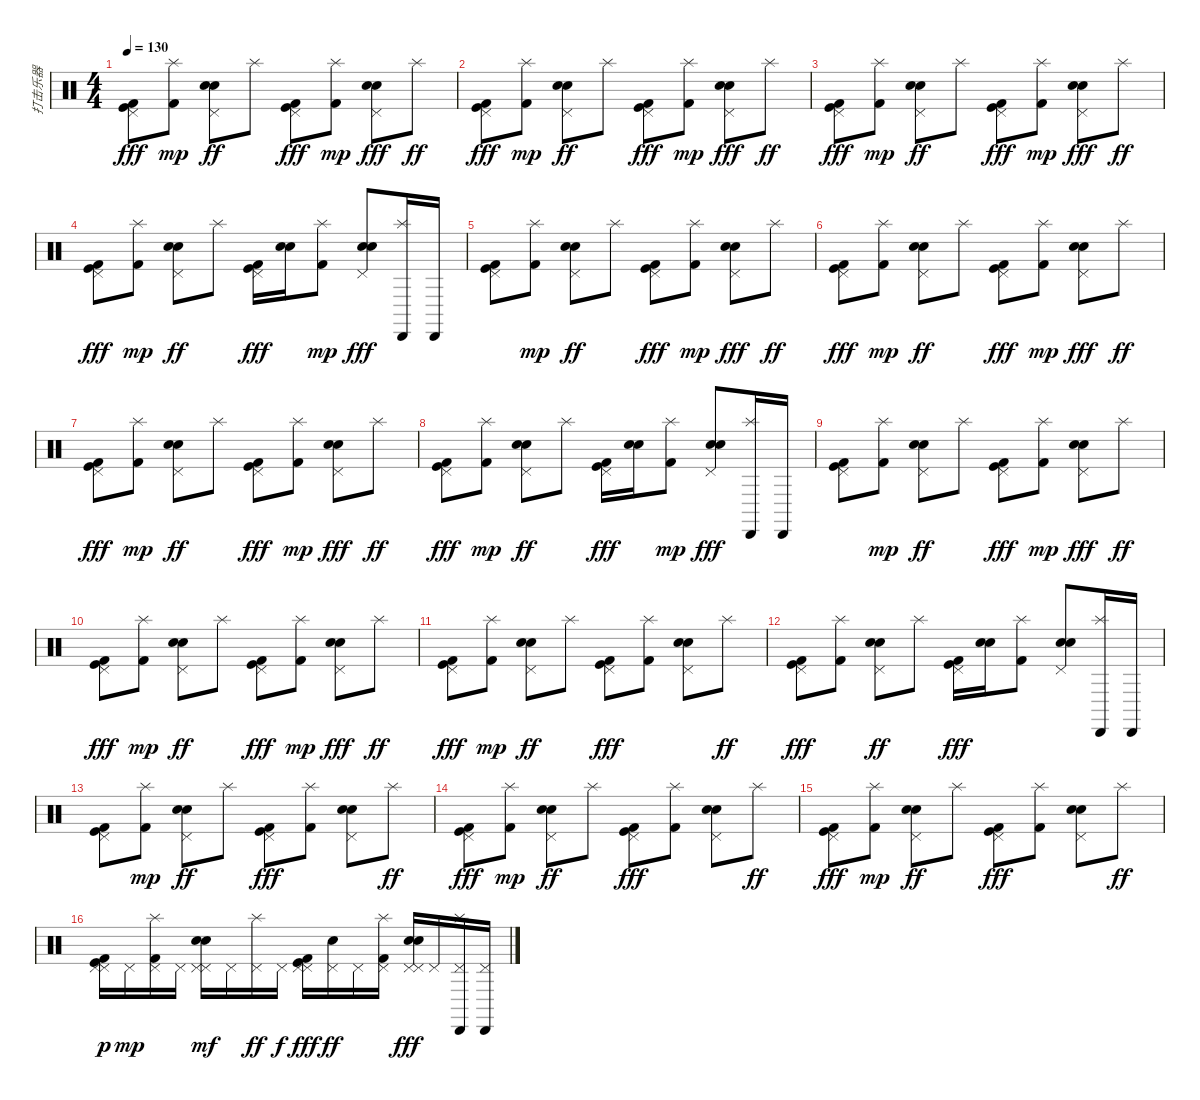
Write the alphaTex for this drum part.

\track ("打击乐器" "打击乐器") {instrument percussion}
\staff {score}
\articulation defaults
\ts (4 4)
\tempo 130
\clef neutral
\ks c
("Pedal Hi-Hat (hit)" "Kick (hit)" "Kick (hit) 2").8{dy fff} ("Splash (hit)" "Kick (hit) 2").8{dy mp} ("Pedal Hi-Hat (hit)" "Electric Snare (hit)" "Snare (hit) 2").8{dy ff} "Splash (hit)".8 ("Pedal Hi-Hat (hit)" "Kick (hit)" "Kick (hit) 2").8{dy fff} ("Splash (hit)" "Kick (hit) 2").8{dy mp} ("Pedal Hi-Hat (hit)" "Electric Snare (hit)" "Snare (hit) 2").8{dy fff} "Splash (hit)".8{dy ff} |
("Pedal Hi-Hat (hit)" "Kick (hit)" "Kick (hit) 2").8{dy fff} ("Splash (hit)" "Kick (hit) 2").8{dy mp} ("Pedal Hi-Hat (hit)" "Electric Snare (hit)" "Snare (hit) 2").8{dy ff} "Splash (hit)".8 ("Pedal Hi-Hat (hit)" "Kick (hit)" "Kick (hit) 2").8{dy fff} ("Splash (hit)" "Kick (hit) 2").8{dy mp} ("Pedal Hi-Hat (hit)" "Electric Snare (hit)" "Snare (hit) 2").8{dy fff} "Splash (hit)".8{dy ff} |
("Pedal Hi-Hat (hit)" "Kick (hit)" "Kick (hit) 2").8{dy fff} ("Splash (hit)" "Kick (hit) 2").8{dy mp} ("Pedal Hi-Hat (hit)" "Electric Snare (hit)" "Snare (hit) 2").8{dy ff} "Splash (hit)".8 ("Pedal Hi-Hat (hit)" "Kick (hit)" "Kick (hit) 2").8{dy fff} ("Splash (hit)" "Kick (hit) 2").8{dy mp} ("Pedal Hi-Hat (hit)" "Electric Snare (hit)" "Snare (hit) 2").8{dy fff} "Splash (hit)".8{dy ff} |
("Pedal Hi-Hat (hit)" "Kick (hit)" "Kick (hit) 2").8{dy fff} ("Splash (hit)" "Kick (hit) 2").8{dy mp} ("Pedal Hi-Hat (hit)" "Electric Snare (hit)" "Snare (hit) 2").8{dy ff} "Splash (hit)".8 ("Pedal Hi-Hat (hit)" "Kick (hit)" "Kick (hit) 2").16{dy fff} ("Electric Snare (hit)" "Snare (hit) 2").16 ("Splash (hit)" "Kick (hit) 2").8{dy mp} ("Pedal Hi-Hat (hit)" "Electric Snare (hit)" "Snare (hit) 2").8{dy fff} ("Splash (hit)" "Cabasa (hit)").16 "Cabasa (hit)".16 |
("Pedal Hi-Hat (hit)" "Kick (hit)" "Kick (hit) 2").8 ("Splash (hit)" "Kick (hit) 2").8{dy mp} ("Pedal Hi-Hat (hit)" "Electric Snare (hit)" "Snare (hit) 2").8{dy ff} "Splash (hit)".8 ("Pedal Hi-Hat (hit)" "Kick (hit)" "Kick (hit) 2").8{dy fff} ("Splash (hit)" "Kick (hit) 2").8{dy mp} ("Pedal Hi-Hat (hit)" "Electric Snare (hit)" "Snare (hit) 2").8{dy fff} "Splash (hit)".8{dy ff} |
("Pedal Hi-Hat (hit)" "Kick (hit)" "Kick (hit) 2").8{dy fff} ("Splash (hit)" "Kick (hit) 2").8{dy mp} ("Pedal Hi-Hat (hit)" "Electric Snare (hit)" "Snare (hit) 2").8{dy ff} "Splash (hit)".8 ("Pedal Hi-Hat (hit)" "Kick (hit)" "Kick (hit) 2").8{dy fff} ("Splash (hit)" "Kick (hit) 2").8{dy mp} ("Pedal Hi-Hat (hit)" "Electric Snare (hit)" "Snare (hit) 2").8{dy fff} "Splash (hit)".8{dy ff} |
("Pedal Hi-Hat (hit)" "Kick (hit)" "Kick (hit) 2").8{dy fff} ("Splash (hit)" "Kick (hit) 2").8{dy mp} ("Pedal Hi-Hat (hit)" "Electric Snare (hit)" "Snare (hit) 2").8{dy ff} "Splash (hit)".8 ("Pedal Hi-Hat (hit)" "Kick (hit)" "Kick (hit) 2").8{dy fff} ("Splash (hit)" "Kick (hit) 2").8{dy mp} ("Pedal Hi-Hat (hit)" "Electric Snare (hit)" "Snare (hit) 2").8{dy fff} "Splash (hit)".8{dy ff} |
("Pedal Hi-Hat (hit)" "Kick (hit)" "Kick (hit) 2").8{dy fff} ("Splash (hit)" "Kick (hit) 2").8{dy mp} ("Pedal Hi-Hat (hit)" "Electric Snare (hit)" "Snare (hit) 2").8{dy ff} "Splash (hit)".8 ("Pedal Hi-Hat (hit)" "Kick (hit)" "Kick (hit) 2").16{dy fff} ("Electric Snare (hit)" "Snare (hit) 2").16 ("Splash (hit)" "Kick (hit) 2").8{dy mp} ("Pedal Hi-Hat (hit)" "Electric Snare (hit)" "Snare (hit) 2").8{dy fff} ("Splash (hit)" "Cabasa (hit)").16 "Cabasa (hit)".16 |
("Pedal Hi-Hat (hit)" "Kick (hit)" "Kick (hit) 2").8 ("Splash (hit)" "Kick (hit) 2").8{dy mp} ("Pedal Hi-Hat (hit)" "Electric Snare (hit)" "Snare (hit) 2").8{dy ff} "Splash (hit)".8 ("Pedal Hi-Hat (hit)" "Kick (hit)" "Kick (hit) 2").8{dy fff} ("Splash (hit)" "Kick (hit) 2").8{dy mp} ("Pedal Hi-Hat (hit)" "Electric Snare (hit)" "Snare (hit) 2").8{dy fff} "Splash (hit)".8{dy ff} |
("Pedal Hi-Hat (hit)" "Kick (hit)" "Kick (hit) 2").8{dy fff} ("Splash (hit)" "Kick (hit) 2").8{dy mp} ("Pedal Hi-Hat (hit)" "Electric Snare (hit)" "Snare (hit) 2").8{dy ff} "Splash (hit)".8 ("Pedal Hi-Hat (hit)" "Kick (hit)" "Kick (hit) 2").8{dy fff} ("Splash (hit)" "Kick (hit) 2").8{dy mp} ("Pedal Hi-Hat (hit)" "Electric Snare (hit)" "Snare (hit) 2").8{dy fff} "Splash (hit)".8{dy ff} |
("Pedal Hi-Hat (hit)" "Kick (hit)" "Kick (hit) 2").8{dy fff} ("Splash (hit)" "Kick (hit) 2").8{dy mp} ("Pedal Hi-Hat (hit)" "Electric Snare (hit)" "Snare (hit) 2").8{dy ff} "Splash (hit)".8 ("Pedal Hi-Hat (hit)" "Kick (hit)" "Kick (hit) 2").8{dy fff} ("Splash (hit)" "Kick (hit) 2").8 ("Pedal Hi-Hat (hit)" "Electric Snare (hit)" "Snare (hit) 2").8 "Splash (hit)".8{dy ff} |
("Pedal Hi-Hat (hit)" "Kick (hit)" "Kick (hit) 2").8{dy fff} ("Splash (hit)" "Kick (hit) 2").8 ("Pedal Hi-Hat (hit)" "Electric Snare (hit)" "Snare (hit) 2").8{dy ff} "Splash (hit)".8 ("Pedal Hi-Hat (hit)" "Kick (hit)" "Kick (hit) 2").16{dy fff} ("Electric Snare (hit)" "Snare (hit) 2").16 ("Splash (hit)" "Kick (hit) 2").8 ("Pedal Hi-Hat (hit)" "Electric Snare (hit)" "Snare (hit) 2").8 ("Splash (hit)" "Cabasa (hit)").16 "Cabasa (hit)".16 |
("Pedal Hi-Hat (hit)" "Kick (hit)" "Kick (hit) 2").8 ("Splash (hit)" "Kick (hit) 2").8{dy mp} ("Pedal Hi-Hat (hit)" "Electric Snare (hit)" "Snare (hit) 2").8{dy ff} "Splash (hit)".8 ("Pedal Hi-Hat (hit)" "Kick (hit)" "Kick (hit) 2").8{dy fff} ("Splash (hit)" "Kick (hit) 2").8 ("Pedal Hi-Hat (hit)" "Electric Snare (hit)" "Snare (hit) 2").8 "Splash (hit)".8{dy ff} |
("Pedal Hi-Hat (hit)" "Kick (hit)" "Kick (hit) 2").8{dy fff} ("Splash (hit)" "Kick (hit) 2").8{dy mp} ("Pedal Hi-Hat (hit)" "Electric Snare (hit)" "Snare (hit) 2").8{dy ff} "Splash (hit)".8 ("Pedal Hi-Hat (hit)" "Kick (hit)" "Kick (hit) 2").8{dy fff} ("Splash (hit)" "Kick (hit) 2").8 ("Pedal Hi-Hat (hit)" "Electric Snare (hit)" "Snare (hit) 2").8 "Splash (hit)".8{dy ff} |
("Pedal Hi-Hat (hit)" "Kick (hit)" "Kick (hit) 2").8{dy fff} ("Splash (hit)" "Kick (hit) 2").8{dy mp} ("Pedal Hi-Hat (hit)" "Electric Snare (hit)" "Snare (hit) 2").8{dy ff} "Splash (hit)".8 ("Pedal Hi-Hat (hit)" "Kick (hit)" "Kick (hit) 2").8{dy fff} ("Splash (hit)" "Kick (hit) 2").8 ("Pedal Hi-Hat (hit)" "Electric Snare (hit)" "Snare (hit) 2").8 "Splash (hit)".8{dy ff} |
("Pedal Hi-Hat (hit)" "Kick (hit)" "Kick (hit) 2" "Pedal Hi-Hat (hit)").16{dy p} "Pedal Hi-Hat (hit)".16{dy mp} ("Splash (hit)" "Kick (hit) 2" "Pedal Hi-Hat (hit)").16 "Pedal Hi-Hat (hit)".16 ("Pedal Hi-Hat (hit)" "Electric Snare (hit)" "Snare (hit) 2" "Pedal Hi-Hat (hit)").16{dy mf} "Pedal Hi-Hat (hit)".16 ("Splash (hit)" "Pedal Hi-Hat (hit)").16{dy ff} "Pedal Hi-Hat (hit)".16{dy f} ("Pedal Hi-Hat (hit)" "Kick (hit)" "Kick (hit) 2" "Pedal Hi-Hat (hit)").16{dy fff} ("Electric Snare (hit)" "Pedal Hi-Hat (hit)").16{dy ff} "Pedal Hi-Hat (hit)".16 ("Splash (hit)" "Kick (hit) 2" "Pedal Hi-Hat (hit)").16 ("Pedal Hi-Hat (hit)" "Electric Snare (hit)" "Snare (hit) 2" "Pedal Hi-Hat (hit)").16{dy fff} "Pedal Hi-Hat (hit)".16 ("Splash (hit)" "Cabasa (hit)" "Pedal Hi-Hat (hit)").16 ("Cabasa (hit)" "Pedal Hi-Hat (hit)").16
